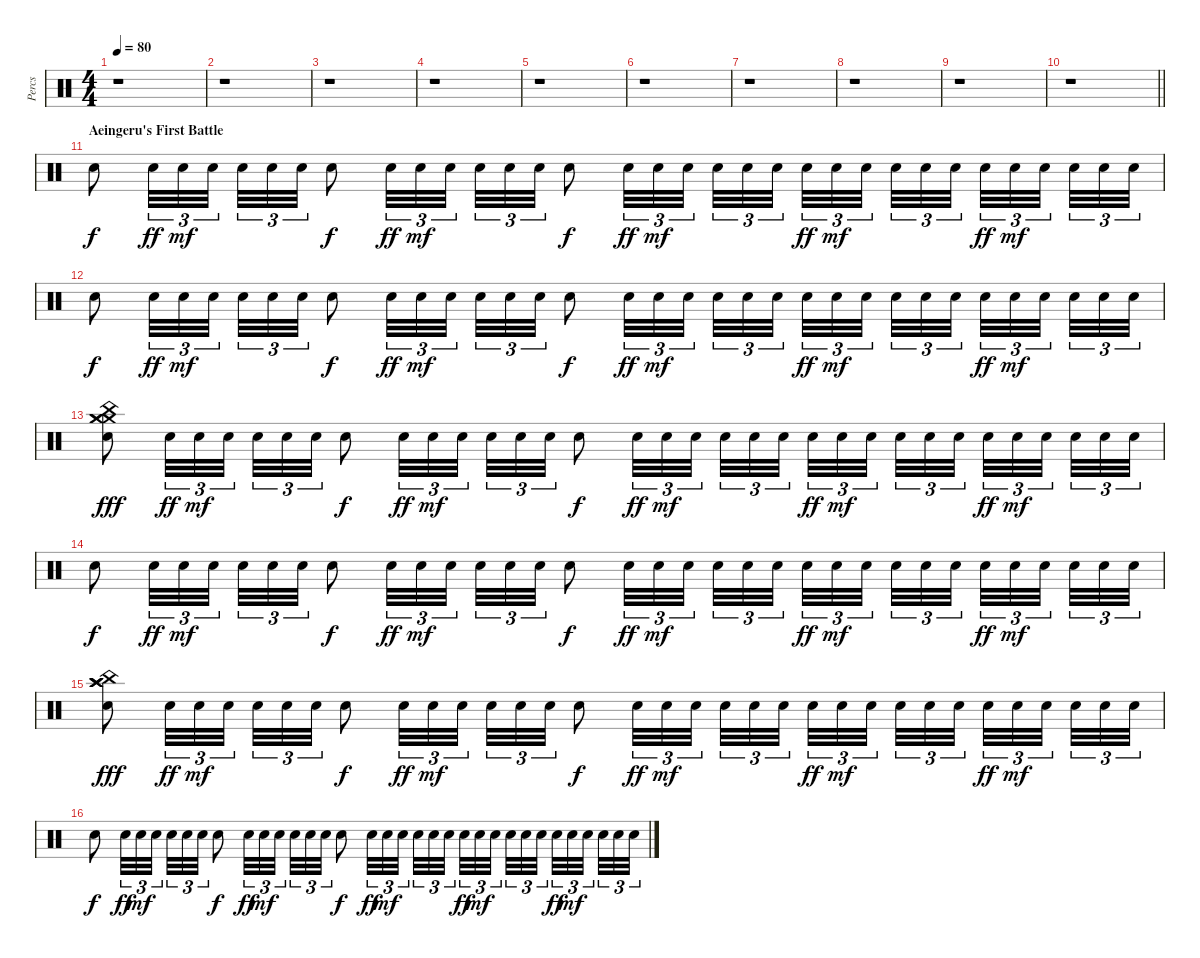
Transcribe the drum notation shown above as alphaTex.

\track ("Percs" "Percs") {instrument percussion}
\staff {score}
\articulation defaults
\ts (4 4)
\tempo 80
\clef neutral
\ks c
r.1{dy f} |
r.1 |
r.1 |
r.1 |
r.1 |
r.1 |
r.1 |
r.1 |
r.1 |
\barLineRight lightlight
r.1 |
\section ("" "Aeingeru's First Battle")
"Snare (hit) 2".8 "Snare (hit) 2".32{tu (3 2) dy ff} "Snare (hit) 2".32{tu (3 2) dy mf} "Snare (hit) 2".32{tu (3 2)} "Snare (hit) 2".32{tu (3 2)} "Snare (hit) 2".32{tu (3 2)} "Snare (hit) 2".32{tu (3 2)} "Snare (hit) 2".8{dy f} "Snare (hit) 2".32{tu (3 2) dy ff} "Snare (hit) 2".32{tu (3 2) dy mf} "Snare (hit) 2".32{tu (3 2)} "Snare (hit) 2".32{tu (3 2)} "Snare (hit) 2".32{tu (3 2)} "Snare (hit) 2".32{tu (3 2)} "Snare (hit) 2".8{dy f} "Snare (hit) 2".32{tu (3 2) dy ff} "Snare (hit) 2".32{tu (3 2) dy mf} "Snare (hit) 2".32{tu (3 2)} "Snare (hit) 2".32{tu (3 2)} "Snare (hit) 2".32{tu (3 2)} "Snare (hit) 2".32{tu (3 2)} "Snare (hit) 2".32{tu (3 2) dy ff} "Snare (hit) 2".32{tu (3 2) dy mf} "Snare (hit) 2".32{tu (3 2)} "Snare (hit) 2".32{tu (3 2)} "Snare (hit) 2".32{tu (3 2)} "Snare (hit) 2".32{tu (3 2)} "Snare (hit) 2".32{tu (3 2) dy ff} "Snare (hit) 2".32{tu (3 2) dy mf} "Snare (hit) 2".32{tu (3 2)} "Snare (hit) 2".32{tu (3 2)} "Snare (hit) 2".32{tu (3 2)} "Snare (hit) 2".32{tu (3 2)} |
"Snare (hit) 2".8{dy f} "Snare (hit) 2".32{tu (3 2) dy ff} "Snare (hit) 2".32{tu (3 2) dy mf} "Snare (hit) 2".32{tu (3 2)} "Snare (hit) 2".32{tu (3 2)} "Snare (hit) 2".32{tu (3 2)} "Snare (hit) 2".32{tu (3 2)} "Snare (hit) 2".8{dy f} "Snare (hit) 2".32{tu (3 2) dy ff} "Snare (hit) 2".32{tu (3 2) dy mf} "Snare (hit) 2".32{tu (3 2)} "Snare (hit) 2".32{tu (3 2)} "Snare (hit) 2".32{tu (3 2)} "Snare (hit) 2".32{tu (3 2)} "Snare (hit) 2".8{dy f} "Snare (hit) 2".32{tu (3 2) dy ff} "Snare (hit) 2".32{tu (3 2) dy mf} "Snare (hit) 2".32{tu (3 2)} "Snare (hit) 2".32{tu (3 2)} "Snare (hit) 2".32{tu (3 2)} "Snare (hit) 2".32{tu (3 2)} "Snare (hit) 2".32{tu (3 2) dy ff} "Snare (hit) 2".32{tu (3 2) dy mf} "Snare (hit) 2".32{tu (3 2)} "Snare (hit) 2".32{tu (3 2)} "Snare (hit) 2".32{tu (3 2)} "Snare (hit) 2".32{tu (3 2)} "Snare (hit) 2".32{tu (3 2) dy ff} "Snare (hit) 2".32{tu (3 2) dy mf} "Snare (hit) 2".32{tu (3 2)} "Snare (hit) 2".32{tu (3 2)} "Snare (hit) 2".32{tu (3 2)} "Snare (hit) 2".32{tu (3 2)} |
("Crash medium (hit)" "Crash medium (hit)" "Crash medium (hit)" "Snare (hit) 2" "China (hit)").8{dy fff volume 12} "Snare (hit) 2".32{tu (3 2) dy ff} "Snare (hit) 2".32{tu (3 2) dy mf} "Snare (hit) 2".32{tu (3 2)} "Snare (hit) 2".32{tu (3 2)} "Snare (hit) 2".32{tu (3 2)} "Snare (hit) 2".32{tu (3 2)} "Snare (hit) 2".8{dy f} "Snare (hit) 2".32{tu (3 2) dy ff} "Snare (hit) 2".32{tu (3 2) dy mf} "Snare (hit) 2".32{tu (3 2)} "Snare (hit) 2".32{tu (3 2)} "Snare (hit) 2".32{tu (3 2)} "Snare (hit) 2".32{tu (3 2)} "Snare (hit) 2".8{dy f} "Snare (hit) 2".32{tu (3 2) dy ff} "Snare (hit) 2".32{tu (3 2) dy mf} "Snare (hit) 2".32{tu (3 2)} "Snare (hit) 2".32{tu (3 2)} "Snare (hit) 2".32{tu (3 2)} "Snare (hit) 2".32{tu (3 2)} "Snare (hit) 2".32{tu (3 2) dy ff} "Snare (hit) 2".32{tu (3 2) dy mf} "Snare (hit) 2".32{tu (3 2)} "Snare (hit) 2".32{tu (3 2)} "Snare (hit) 2".32{tu (3 2)} "Snare (hit) 2".32{tu (3 2)} "Snare (hit) 2".32{tu (3 2) dy ff} "Snare (hit) 2".32{tu (3 2) dy mf} "Snare (hit) 2".32{tu (3 2)} "Snare (hit) 2".32{tu (3 2)} "Snare (hit) 2".32{tu (3 2)} "Snare (hit) 2".32{tu (3 2)} |
"Snare (hit) 2".8{dy f volume 12} "Snare (hit) 2".32{tu (3 2) dy ff} "Snare (hit) 2".32{tu (3 2) dy mf} "Snare (hit) 2".32{tu (3 2)} "Snare (hit) 2".32{tu (3 2)} "Snare (hit) 2".32{tu (3 2)} "Snare (hit) 2".32{tu (3 2)} "Snare (hit) 2".8{dy f} "Snare (hit) 2".32{tu (3 2) dy ff} "Snare (hit) 2".32{tu (3 2) dy mf} "Snare (hit) 2".32{tu (3 2)} "Snare (hit) 2".32{tu (3 2)} "Snare (hit) 2".32{tu (3 2)} "Snare (hit) 2".32{tu (3 2)} "Snare (hit) 2".8{dy f} "Snare (hit) 2".32{tu (3 2) dy ff} "Snare (hit) 2".32{tu (3 2) dy mf} "Snare (hit) 2".32{tu (3 2)} "Snare (hit) 2".32{tu (3 2)} "Snare (hit) 2".32{tu (3 2)} "Snare (hit) 2".32{tu (3 2)} "Snare (hit) 2".32{tu (3 2) dy ff} "Snare (hit) 2".32{tu (3 2) dy mf} "Snare (hit) 2".32{tu (3 2)} "Snare (hit) 2".32{tu (3 2)} "Snare (hit) 2".32{tu (3 2)} "Snare (hit) 2".32{tu (3 2)} "Snare (hit) 2".32{tu (3 2) dy ff} "Snare (hit) 2".32{tu (3 2) dy mf} "Snare (hit) 2".32{tu (3 2)} "Snare (hit) 2".32{tu (3 2)} "Snare (hit) 2".32{tu (3 2)} "Snare (hit) 2".32{tu (3 2)} |
("Crash high (hit)" "Crash high (hit)" "Crash high (hit)" "Snare (hit) 2" "China (hit)").8{dy fff volume 12} "Snare (hit) 2".32{tu (3 2) dy ff} "Snare (hit) 2".32{tu (3 2) dy mf} "Snare (hit) 2".32{tu (3 2)} "Snare (hit) 2".32{tu (3 2)} "Snare (hit) 2".32{tu (3 2)} "Snare (hit) 2".32{tu (3 2)} "Snare (hit) 2".8{dy f} "Snare (hit) 2".32{tu (3 2) dy ff} "Snare (hit) 2".32{tu (3 2) dy mf} "Snare (hit) 2".32{tu (3 2)} "Snare (hit) 2".32{tu (3 2)} "Snare (hit) 2".32{tu (3 2)} "Snare (hit) 2".32{tu (3 2)} "Snare (hit) 2".8{dy f} "Snare (hit) 2".32{tu (3 2) dy ff} "Snare (hit) 2".32{tu (3 2) dy mf} "Snare (hit) 2".32{tu (3 2)} "Snare (hit) 2".32{tu (3 2)} "Snare (hit) 2".32{tu (3 2)} "Snare (hit) 2".32{tu (3 2)} "Snare (hit) 2".32{tu (3 2) dy ff} "Snare (hit) 2".32{tu (3 2) dy mf} "Snare (hit) 2".32{tu (3 2)} "Snare (hit) 2".32{tu (3 2)} "Snare (hit) 2".32{tu (3 2)} "Snare (hit) 2".32{tu (3 2)} "Snare (hit) 2".32{tu (3 2) dy ff} "Snare (hit) 2".32{tu (3 2) dy mf} "Snare (hit) 2".32{tu (3 2)} "Snare (hit) 2".32{tu (3 2)} "Snare (hit) 2".32{tu (3 2)} "Snare (hit) 2".32{tu (3 2)} |
"Snare (hit) 2".8{dy f volume 12} "Snare (hit) 2".32{tu (3 2) dy ff} "Snare (hit) 2".32{tu (3 2) dy mf} "Snare (hit) 2".32{tu (3 2)} "Snare (hit) 2".32{tu (3 2)} "Snare (hit) 2".32{tu (3 2)} "Snare (hit) 2".32{tu (3 2)} "Snare (hit) 2".8{dy f} "Snare (hit) 2".32{tu (3 2) dy ff} "Snare (hit) 2".32{tu (3 2) dy mf} "Snare (hit) 2".32{tu (3 2)} "Snare (hit) 2".32{tu (3 2)} "Snare (hit) 2".32{tu (3 2)} "Snare (hit) 2".32{tu (3 2)} "Snare (hit) 2".8{dy f} "Snare (hit) 2".32{tu (3 2) dy ff} "Snare (hit) 2".32{tu (3 2) dy mf} "Snare (hit) 2".32{tu (3 2)} "Snare (hit) 2".32{tu (3 2)} "Snare (hit) 2".32{tu (3 2)} "Snare (hit) 2".32{tu (3 2)} "Snare (hit) 2".32{tu (3 2) dy ff} "Snare (hit) 2".32{tu (3 2) dy mf} "Snare (hit) 2".32{tu (3 2)} "Snare (hit) 2".32{tu (3 2)} "Snare (hit) 2".32{tu (3 2)} "Snare (hit) 2".32{tu (3 2)} "Snare (hit) 2".32{tu (3 2) dy ff} "Snare (hit) 2".32{tu (3 2) dy mf} "Snare (hit) 2".32{tu (3 2)} "Snare (hit) 2".32{tu (3 2)} "Snare (hit) 2".32{tu (3 2)} "Snare (hit) 2".32{tu (3 2)}
